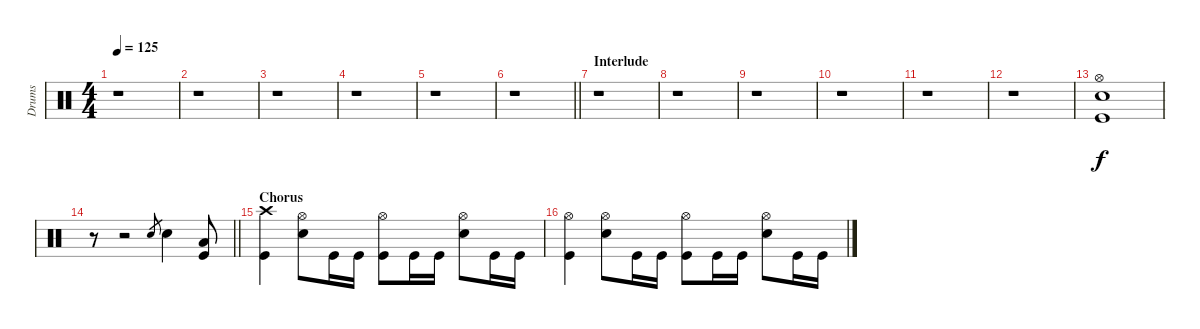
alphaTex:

\track ("Drums" "Drums") {instrument percussion}
\staff {score}
\articulation defaults
\ts (4 4)
\tempo 125
\clef neutral
\ks c
r.1{dy f} |
r.1 |
r.1 |
r.1 |
r.1 |
\barLineRight lightlight
r.1 |
\section ("" "Interlude ")
r.1 |
r.1 |
r.1 |
r.1 |
r.1 |
r.1 |
("Hi-Hat (open)" "Electric Snare (hit)" "Kick (hit)").1 |
\barLineRight lightlight
r.8 r.2 "Electric Snare (hit)".8{gr} "Electric Snare (hit)".4 ("Low Floor Tom (hit)" "Kick (hit)").8 |
\section ("" "Chorus ")
("Crash high (hit)" "Kick (hit)").4 ("Hi-Hat (open)" "Electric Snare (hit)").8 "Kick (hit)".16 "Kick (hit)".16 ("Hi-Hat (open)" "Kick (hit)").8 "Kick (hit)".16 "Kick (hit)".16 ("Hi-Hat (open)" "Electric Snare (hit)").8 "Kick (hit)".16 "Kick (hit)".16 |
("Hi-Hat (open)" "Kick (hit)").4 ("Hi-Hat (open)" "Electric Snare (hit)").8 "Kick (hit)".16 "Kick (hit)".16 ("Hi-Hat (open)" "Kick (hit)").8 "Kick (hit)".16 "Kick (hit)".16 ("Hi-Hat (open)" "Electric Snare (hit)").8 "Kick (hit)".16 "Kick (hit)".16
